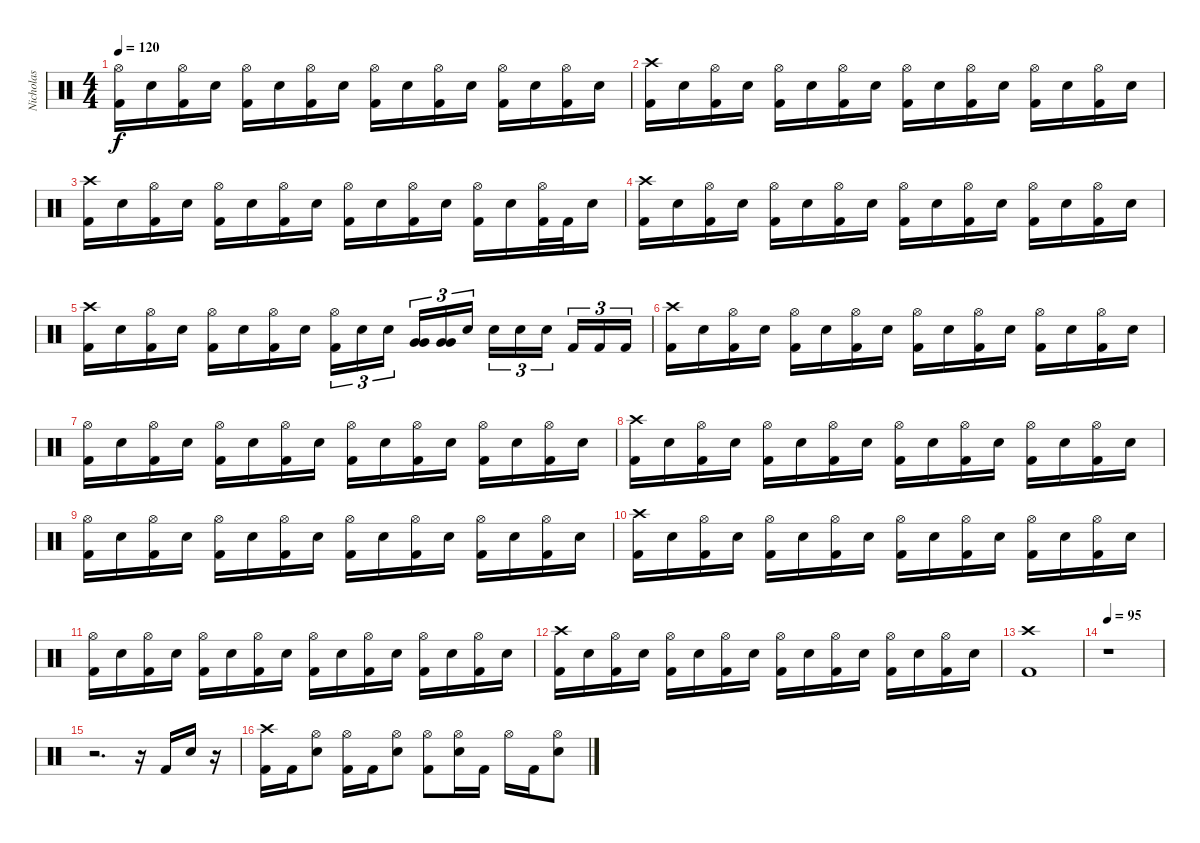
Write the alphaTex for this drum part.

\track ("Nicholas" "Nicholas") {instrument percussion}
\staff {score}
\articulation defaults
\ts (4 4)
\tempo 120
\clef neutral
\ks c
("Hi-Hat (open)" "Kick (hit) 2").16{dy f} "Electric Snare (hit)".16 ("Hi-Hat (open)" "Kick (hit) 2").16 "Electric Snare (hit)".16 ("Hi-Hat (open)" "Kick (hit) 2").16 "Electric Snare (hit)".16 ("Hi-Hat (open)" "Kick (hit) 2").16 "Electric Snare (hit)".16 ("Hi-Hat (open)" "Kick (hit) 2").16 "Electric Snare (hit)".16 ("Hi-Hat (open)" "Kick (hit) 2").16 "Electric Snare (hit)".16 ("Hi-Hat (open)" "Kick (hit) 2").16 "Electric Snare (hit)".16 ("Hi-Hat (open)" "Kick (hit) 2").16 "Electric Snare (hit)".16 |
("Crash high (hit)" "Kick (hit) 2").16 "Electric Snare (hit)".16 ("Hi-Hat (open)" "Kick (hit) 2").16 "Electric Snare (hit)".16 ("Hi-Hat (open)" "Kick (hit) 2").16 "Electric Snare (hit)".16 ("Hi-Hat (open)" "Kick (hit) 2").16 "Electric Snare (hit)".16 ("Hi-Hat (open)" "Kick (hit) 2").16 "Electric Snare (hit)".16 ("Hi-Hat (open)" "Kick (hit) 2").16 "Electric Snare (hit)".16 ("Hi-Hat (open)" "Kick (hit) 2").16 "Electric Snare (hit)".16 ("Hi-Hat (open)" "Kick (hit) 2").16 "Electric Snare (hit)".16 |
("Crash high (hit)" "Kick (hit) 2").16 "Electric Snare (hit)".16 ("Hi-Hat (open)" "Kick (hit) 2").16 "Electric Snare (hit)".16 ("Hi-Hat (open)" "Kick (hit) 2").16 "Electric Snare (hit)".16 ("Hi-Hat (open)" "Kick (hit) 2").16 "Electric Snare (hit)".16 ("Hi-Hat (open)" "Kick (hit) 2").16 "Electric Snare (hit)".16 ("Hi-Hat (open)" "Kick (hit) 2").16 "Electric Snare (hit)".16 ("Hi-Hat (open)" "Kick (hit) 2").16 "Electric Snare (hit)".16 ("Hi-Hat (open)" "Kick (hit) 2").32 "Kick (hit) 2".32 "Electric Snare (hit)".16 |
("Crash high (hit)" "Kick (hit) 2").16 "Electric Snare (hit)".16 ("Hi-Hat (open)" "Kick (hit) 2").16 "Electric Snare (hit)".16 ("Hi-Hat (open)" "Kick (hit) 2").16 "Electric Snare (hit)".16 ("Hi-Hat (open)" "Kick (hit) 2").16 "Electric Snare (hit)".16 ("Hi-Hat (open)" "Kick (hit) 2").16 "Electric Snare (hit)".16 ("Hi-Hat (open)" "Kick (hit) 2").16 "Electric Snare (hit)".16 ("Hi-Hat (open)" "Kick (hit) 2").16 "Electric Snare (hit)".16 ("Hi-Hat (open)" "Kick (hit) 2").16 "Electric Snare (hit)".16 |
("Crash high (hit)" "Kick (hit) 2").16 "Electric Snare (hit)".16 ("Hi-Hat (open)" "Kick (hit) 2").16 "Electric Snare (hit)".16 ("Hi-Hat (open)" "Kick (hit) 2").16 "Electric Snare (hit)".16 ("Hi-Hat (open)" "Kick (hit) 2").16 "Electric Snare (hit)".16 ("Hi-Hat (open)" "Kick (hit) 2").16{tu (3 2)} "Electric Snare (hit)".16{tu (3 2)} "Electric Snare (hit)".16{tu (3 2)} ("Very Low Tom (hit)" "Very Low Tom (hit)").16{tu (3 2)} ("Very Low Tom (hit)" "Very Low Tom (hit)").16{tu (3 2)} "Electric Snare (hit)".16{tu (3 2)} "Electric Snare (hit)".16{tu (3 2)} "Electric Snare (hit)".16{tu (3 2)} "Electric Snare (hit)".16{tu (3 2)} "Kick (hit) 2".16{tu (3 2)} "Kick (hit) 2".16{tu (3 2)} "Kick (hit) 2".16{tu (3 2)} |
("Crash high (hit)" "Kick (hit) 2").16 "Electric Snare (hit)".16 ("Hi-Hat (open)" "Kick (hit) 2").16 "Electric Snare (hit)".16 ("Hi-Hat (open)" "Kick (hit) 2").16 "Electric Snare (hit)".16 ("Hi-Hat (open)" "Kick (hit) 2").16 "Electric Snare (hit)".16 ("Hi-Hat (open)" "Kick (hit) 2").16 "Electric Snare (hit)".16 ("Hi-Hat (open)" "Kick (hit) 2").16 "Electric Snare (hit)".16 ("Hi-Hat (open)" "Kick (hit) 2").16 "Electric Snare (hit)".16 ("Hi-Hat (open)" "Kick (hit) 2").16 "Electric Snare (hit)".16 |
("Hi-Hat (open)" "Kick (hit) 2").16 "Electric Snare (hit)".16 ("Hi-Hat (open)" "Kick (hit) 2").16 "Electric Snare (hit)".16 ("Hi-Hat (open)" "Kick (hit) 2").16 "Electric Snare (hit)".16 ("Hi-Hat (open)" "Kick (hit) 2").16 "Electric Snare (hit)".16 ("Hi-Hat (open)" "Kick (hit) 2").16 "Electric Snare (hit)".16 ("Hi-Hat (open)" "Kick (hit) 2").16 "Electric Snare (hit)".16 ("Hi-Hat (open)" "Kick (hit) 2").16 "Electric Snare (hit)".16 ("Hi-Hat (open)" "Kick (hit) 2").16 "Electric Snare (hit)".16 |
("Crash high (hit)" "Kick (hit) 2").16 "Electric Snare (hit)".16 ("Hi-Hat (open)" "Kick (hit) 2").16 "Electric Snare (hit)".16 ("Hi-Hat (open)" "Kick (hit) 2").16 "Electric Snare (hit)".16 ("Hi-Hat (open)" "Kick (hit) 2").16 "Electric Snare (hit)".16 ("Hi-Hat (open)" "Kick (hit) 2").16 "Electric Snare (hit)".16 ("Hi-Hat (open)" "Kick (hit) 2").16 "Electric Snare (hit)".16 ("Hi-Hat (open)" "Kick (hit) 2").16 "Electric Snare (hit)".16 ("Hi-Hat (open)" "Kick (hit) 2").16 "Electric Snare (hit)".16 |
("Hi-Hat (open)" "Kick (hit) 2").16 "Electric Snare (hit)".16 ("Hi-Hat (open)" "Kick (hit) 2").16 "Electric Snare (hit)".16 ("Hi-Hat (open)" "Kick (hit) 2").16 "Electric Snare (hit)".16 ("Hi-Hat (open)" "Kick (hit) 2").16 "Electric Snare (hit)".16 ("Hi-Hat (open)" "Kick (hit) 2").16 "Electric Snare (hit)".16 ("Hi-Hat (open)" "Kick (hit) 2").16 "Electric Snare (hit)".16 ("Hi-Hat (open)" "Kick (hit) 2").16 "Electric Snare (hit)".16 ("Hi-Hat (open)" "Kick (hit) 2").16 "Electric Snare (hit)".16 |
("Crash high (hit)" "Kick (hit) 2").16 "Electric Snare (hit)".16 ("Hi-Hat (open)" "Kick (hit) 2").16 "Electric Snare (hit)".16 ("Hi-Hat (open)" "Kick (hit) 2").16 "Electric Snare (hit)".16 ("Hi-Hat (open)" "Kick (hit) 2").16 "Electric Snare (hit)".16 ("Hi-Hat (open)" "Kick (hit) 2").16 "Electric Snare (hit)".16 ("Hi-Hat (open)" "Kick (hit) 2").16 "Electric Snare (hit)".16 ("Hi-Hat (open)" "Kick (hit) 2").16 "Electric Snare (hit)".16 ("Hi-Hat (open)" "Kick (hit) 2").16 "Electric Snare (hit)".16 |
("Hi-Hat (open)" "Kick (hit) 2").16 "Electric Snare (hit)".16 ("Hi-Hat (open)" "Kick (hit) 2").16 "Electric Snare (hit)".16 ("Hi-Hat (open)" "Kick (hit) 2").16 "Electric Snare (hit)".16 ("Hi-Hat (open)" "Kick (hit) 2").16 "Electric Snare (hit)".16 ("Hi-Hat (open)" "Kick (hit) 2").16 "Electric Snare (hit)".16 ("Hi-Hat (open)" "Kick (hit) 2").16 "Electric Snare (hit)".16 ("Hi-Hat (open)" "Kick (hit) 2").16 "Electric Snare (hit)".16 ("Hi-Hat (open)" "Kick (hit) 2").16 "Electric Snare (hit)".16 |
("Crash high (hit)" "Kick (hit) 2").16 "Electric Snare (hit)".16 ("Hi-Hat (open)" "Kick (hit) 2").16 "Electric Snare (hit)".16 ("Hi-Hat (open)" "Kick (hit) 2").16 "Electric Snare (hit)".16 ("Hi-Hat (open)" "Kick (hit) 2").16 "Electric Snare (hit)".16 ("Hi-Hat (open)" "Kick (hit) 2").16 "Electric Snare (hit)".16 ("Hi-Hat (open)" "Kick (hit) 2").16 "Electric Snare (hit)".16 ("Hi-Hat (open)" "Kick (hit) 2").16 "Electric Snare (hit)".16 ("Hi-Hat (open)" "Kick (hit) 2").16 "Electric Snare (hit)".16 |
("Crash high (hit)" "Kick (hit) 2").1 |
\tempo 95
r.1 |
r.2{d} r.16 "Kick (hit) 2".16 "Electric Snare (hit)".16 r.16 |
("Crash high (hit)" "Kick (hit) 2").16 "Kick (hit) 2".16 ("Hi-Hat (open)" "Electric Snare (hit)").8 ("Hi-Hat (open)" "Kick (hit) 2").16 "Kick (hit) 2".16 ("Hi-Hat (open)" "Electric Snare (hit)").8 ("Hi-Hat (open)" "Kick (hit) 2").8 ("Hi-Hat (open)" "Electric Snare (hit)").16 "Kick (hit) 2".16 "Hi-Hat (open)".16 "Kick (hit) 2".16 ("Hi-Hat (open)" "Electric Snare (hit)").8
